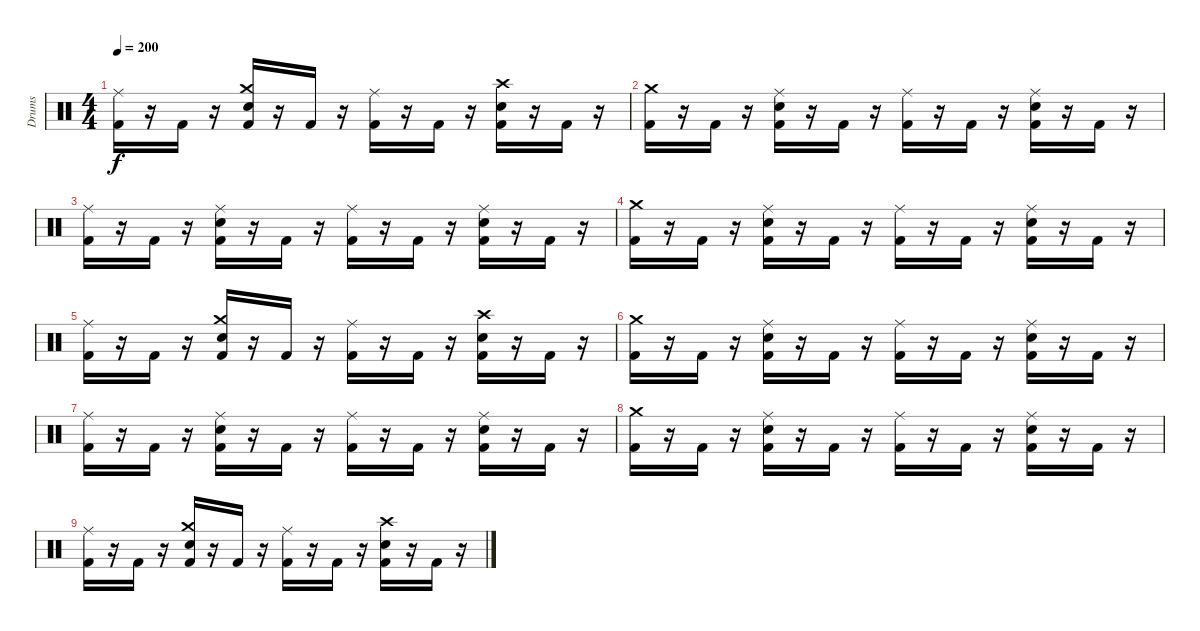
\track ("Drums" "Drums") {instrument percussion}
\staff {score}
\articulation defaults
\ts (4 4)
\tempo 200
\clef neutral
\ks c
("Ride (middle)" "Kick (hit) 2").16{dy f} r.16 "Kick (hit) 2".16 r.16 ("Crash medium (hit)" "Snare (hit) 2" "Kick (hit) 2").16 r.16 "Kick (hit) 2".16 r.16 ("Ride (middle)" "Kick (hit) 2").16 r.16 "Kick (hit) 2".16 r.16 ("Crash high (hit)" "Snare (hit) 2" "Kick (hit) 2").16 r.16 "Kick (hit) 2".16 r.16 |
("Crash medium (hit)" "Kick (hit) 2").16 r.16 "Kick (hit) 2".16 r.16 ("Ride (middle)" "Snare (hit) 2" "Kick (hit) 2").16 r.16 "Kick (hit) 2".16 r.16 ("Ride (middle)" "Kick (hit) 2").16 r.16 "Kick (hit) 2".16 r.16 ("Ride (middle)" "Snare (hit) 2" "Kick (hit) 2").16 r.16 "Kick (hit) 2".16 r.16 |
("Ride (middle)" "Kick (hit) 2").16 r.16 "Kick (hit) 2".16 r.16 ("Ride (middle)" "Snare (hit) 2" "Kick (hit) 2").16 r.16 "Kick (hit) 2".16 r.16 ("Ride (middle)" "Kick (hit) 2").16 r.16 "Kick (hit) 2".16 r.16 ("Ride (middle)" "Snare (hit) 2" "Kick (hit) 2").16 r.16 "Kick (hit) 2".16 r.16 |
("Crash medium (hit)" "Kick (hit) 2").16 r.16 "Kick (hit) 2".16 r.16 ("Ride (middle)" "Snare (hit) 2" "Kick (hit) 2").16 r.16 "Kick (hit) 2".16 r.16 ("Ride (middle)" "Kick (hit) 2").16 r.16 "Kick (hit) 2".16 r.16 ("Ride (middle)" "Snare (hit) 2" "Kick (hit) 2").16 r.16 "Kick (hit) 2".16 r.16 |
("Ride (middle)" "Kick (hit) 2").16 r.16 "Kick (hit) 2".16 r.16 ("Crash medium (hit)" "Snare (hit) 2" "Kick (hit) 2").16 r.16 "Kick (hit) 2".16 r.16 ("Ride (middle)" "Kick (hit) 2").16 r.16 "Kick (hit) 2".16 r.16 ("Crash high (hit)" "Snare (hit) 2" "Kick (hit) 2").16 r.16 "Kick (hit) 2".16 r.16 |
("Crash medium (hit)" "Kick (hit) 2").16 r.16 "Kick (hit) 2".16 r.16 ("Ride (middle)" "Snare (hit) 2" "Kick (hit) 2").16 r.16 "Kick (hit) 2".16 r.16 ("Ride (middle)" "Kick (hit) 2").16 r.16 "Kick (hit) 2".16 r.16 ("Ride (middle)" "Snare (hit) 2" "Kick (hit) 2").16 r.16 "Kick (hit) 2".16 r.16 |
("Ride (middle)" "Kick (hit) 2").16 r.16 "Kick (hit) 2".16 r.16 ("Ride (middle)" "Snare (hit) 2" "Kick (hit) 2").16 r.16 "Kick (hit) 2".16 r.16 ("Ride (middle)" "Kick (hit) 2").16 r.16 "Kick (hit) 2".16 r.16 ("Ride (middle)" "Snare (hit) 2" "Kick (hit) 2").16 r.16 "Kick (hit) 2".16 r.16 |
("Crash medium (hit)" "Kick (hit) 2").16 r.16 "Kick (hit) 2".16 r.16 ("Ride (middle)" "Snare (hit) 2" "Kick (hit) 2").16 r.16 "Kick (hit) 2".16 r.16 ("Ride (middle)" "Kick (hit) 2").16 r.16 "Kick (hit) 2".16 r.16 ("Ride (middle)" "Snare (hit) 2" "Kick (hit) 2").16 r.16 "Kick (hit) 2".16 r.16 |
("Ride (middle)" "Kick (hit) 2").16 r.16 "Kick (hit) 2".16 r.16 ("Crash medium (hit)" "Snare (hit) 2" "Kick (hit) 2").16 r.16 "Kick (hit) 2".16 r.16 ("Ride (middle)" "Kick (hit) 2").16 r.16 "Kick (hit) 2".16 r.16 ("Crash high (hit)" "Snare (hit) 2" "Kick (hit) 2").16 r.16 "Kick (hit) 2".16 r.16
